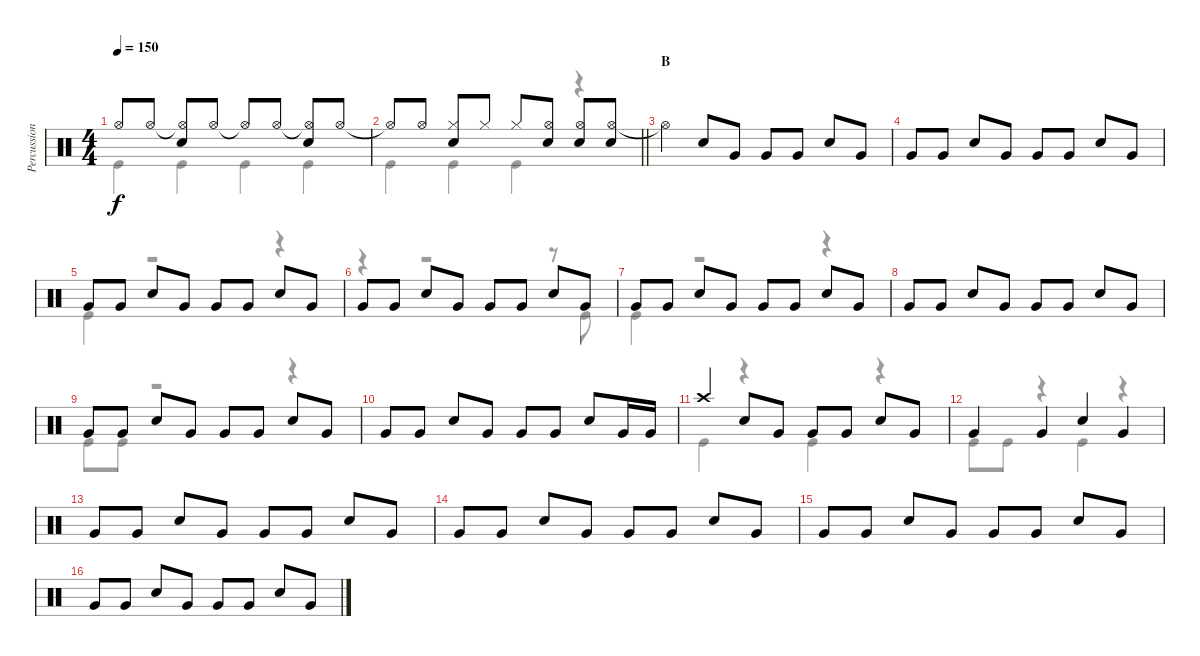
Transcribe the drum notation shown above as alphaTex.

\track ("Percussion" "Percussion") {instrument percussion}
\staff {score}
\articulation defaults
\voice
\ts (4 4)
\tempo 150
\clef neutral
\ks c "Hi-Hat (open)"{t}.8{dy f} "Hi-Hat (open)".8
("Hi-Hat (open)"{t} "Snare (hit) 2").8 "Hi-Hat (open)".8 "Hi-Hat (open)"{t}.8 "Hi-Hat (open)".8 ("Hi-Hat (open)"{t} "Snare (hit) 2").8 "Hi-Hat (open)".8 |
\barLineRight lightlight "Hi-Hat (open)"{t}.8 "Hi-Hat (open)".8
("Hi-Hat (closed)" "Snare (hit) 2").8 "Hi-Hat (closed)".8 "Hi-Hat (closed)".8 ("Hi-Hat (open)" "Snare (hit) 2").8 ("Hi-Hat (open)" "Snare (hit) 2").8 ("Hi-Hat (open)" "Snare (hit) 2").8 |
\section ("" "B")
"Hi-Hat (open)"{t}.4 "Snare (hit) 2".8 "Very Low Tom (hit)".8 "Very Low Tom (hit)".8 "Very Low Tom (hit)".8 "Snare (hit) 2".8 "Very Low Tom (hit)".8 |
"Very Low Tom (hit)".8 "Very Low Tom (hit)".8 "Snare (hit) 2".8 "Very Low Tom (hit)".8 "Very Low Tom (hit)".8 "Very Low Tom (hit)".8 "Snare (hit) 2".8 "Very Low Tom (hit)".8 |
"Very Low Tom (hit)".8 "Very Low Tom (hit)".8 "Snare (hit) 2".8 "Very Low Tom (hit)".8 "Very Low Tom (hit)".8 "Very Low Tom (hit)".8 "Snare (hit) 2".8 "Very Low Tom (hit)".8 |
"Very Low Tom (hit)".8 "Very Low Tom (hit)".8 "Snare (hit) 2".8 "Very Low Tom (hit)".8 "Very Low Tom (hit)".8 "Very Low Tom (hit)".8 "Snare (hit) 2".8 "Very Low Tom (hit)".8 |
"Very Low Tom (hit)".8 "Very Low Tom (hit)".8 "Snare (hit) 2".8 "Very Low Tom (hit)".8 "Very Low Tom (hit)".8 "Very Low Tom (hit)".8 "Snare (hit) 2".8 "Very Low Tom (hit)".8 |
"Very Low Tom (hit)".8 "Very Low Tom (hit)".8 "Snare (hit) 2".8 "Very Low Tom (hit)".8 "Very Low Tom (hit)".8 "Very Low Tom (hit)".8 "Snare (hit) 2".8 "Very Low Tom (hit)".8 |
"Very Low Tom (hit)".8 "Very Low Tom (hit)".8 "Snare (hit) 2".8 "Very Low Tom (hit)".8 "Very Low Tom (hit)".8 "Very Low Tom (hit)".8 "Snare (hit) 2".8 "Very Low Tom (hit)".8 |
"Very Low Tom (hit)".8 "Very Low Tom (hit)".8 "Snare (hit) 2".8 "Very Low Tom (hit)".8 "Very Low Tom (hit)".8 "Very Low Tom (hit)".8 "Snare (hit) 2".8 "Very Low Tom (hit)".16 "Very Low Tom (hit)".16 |
"Crash high (hit)".4 "Snare (hit) 2".8 "Very Low Tom (hit)".8 "Very Low Tom (hit)".8 "Very Low Tom (hit)".8 "Snare (hit) 2".8 "Very Low Tom (hit)".8 |
"Very Low Tom (hit)".4 "Very Low Tom (hit)".4 "Snare (hit) 2".4 "Very Low Tom (hit)".4 |
"Very Low Tom (hit)".8 "Very Low Tom (hit)".8 "Snare (hit) 2".8 "Very Low Tom (hit)".8 "Very Low Tom (hit)".8 "Very Low Tom (hit)".8 "Snare (hit) 2".8 "Very Low Tom (hit)".8 |
"Very Low Tom (hit)".8 "Very Low Tom (hit)".8 "Snare (hit) 2".8 "Very Low Tom (hit)".8 "Very Low Tom (hit)".8 "Very Low Tom (hit)".8 "Snare (hit) 2".8 "Very Low Tom (hit)".8 |
"Very Low Tom (hit)".8 "Very Low Tom (hit)".8 "Snare (hit) 2".8 "Very Low Tom (hit)".8 "Very Low Tom (hit)".8 "Very Low Tom (hit)".8 "Snare (hit) 2".8 "Very Low Tom (hit)".8 |
"Very Low Tom (hit)".8 "Very Low Tom (hit)".8 "Snare (hit) 2".8 "Very Low Tom (hit)".8 "Very Low Tom (hit)".8 "Very Low Tom (hit)".8 "Snare (hit) 2".8 "Very Low Tom (hit)".8
\voice
\clef neutral
\ottava regular
\simile none
\ks c "Kick (hit)".4{dy f} "Kick (hit)".4 "Kick (hit)".4 "Kick (hit)".4
|
\barLineRight lightlight "Kick (hit)".4 "Kick (hit)".4 "Kick (hit)".4
r.4 |
|
|
"Kick (hit)".4 r.2 r.4 |
r.4 r.2 r.8 "Kick (hit)".8 |
"Kick (hit)".4 r.2 r.4 |
|
"Kick (hit)".8 "Kick (hit)".8 r.2 r.4 |
|
"Kick (hit)".4 r.4 "Kick (hit)".4 r.4 |
"Kick (hit)".8 "Kick (hit)".8 r.4 "Kick (hit)".4 r.4 |
|
|
|
